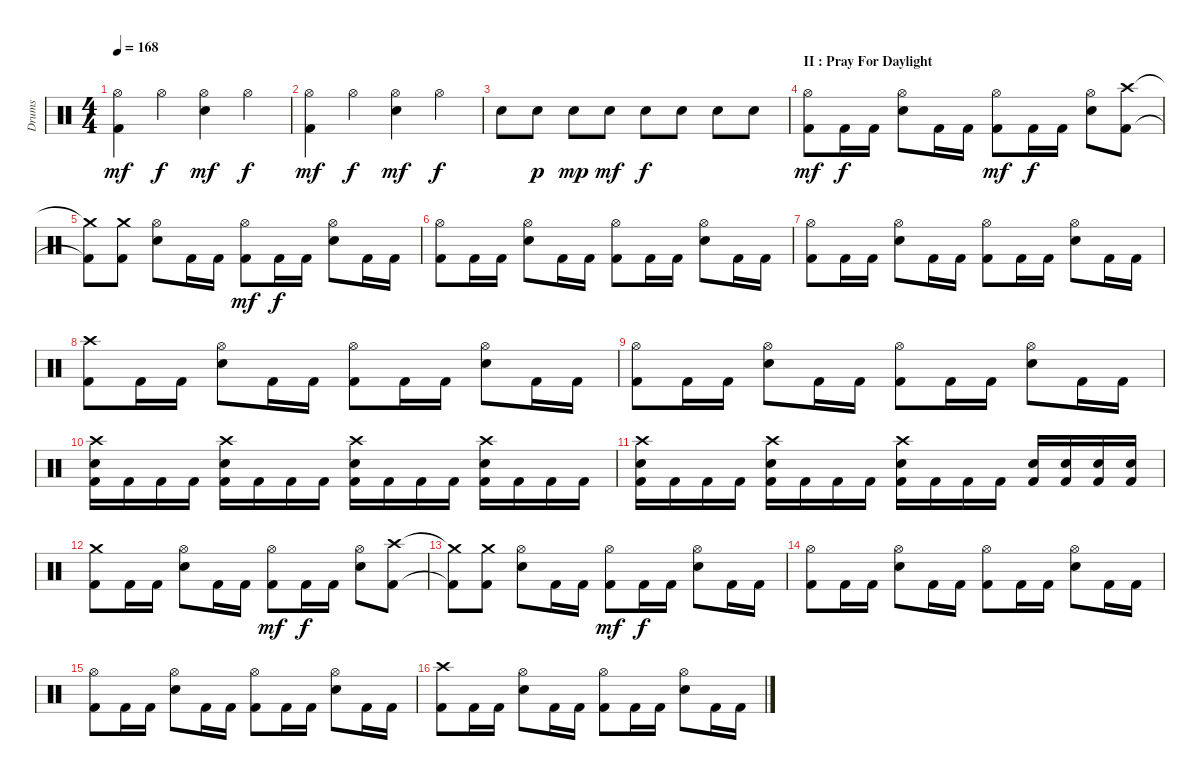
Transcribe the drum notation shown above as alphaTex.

\track ("Drums" "Drums") {instrument percussion}
\staff {score}
\articulation defaults
\ts (4 4)
\tempo 168
\clef neutral
\ks c
("Kick (hit) 2" "Hi-Hat (open)").4{dy mf} "Hi-Hat (open)".4{dy f} ("Electric Snare (hit)" "Hi-Hat (open)").4{dy mf} "Hi-Hat (open)".4{dy f} |
("Kick (hit) 2" "Hi-Hat (open)").4{dy mf} "Hi-Hat (open)".4{dy f} ("Electric Snare (hit)" "Hi-Hat (open)").4{dy mf} "Hi-Hat (open)".4{dy f} |
"Electric Snare (hit)".8 "Electric Snare (hit)".8{dy p} "Electric Snare (hit)".8{dy mp} "Electric Snare (hit)".8{dy mf} "Electric Snare (hit)".8{dy f} "Electric Snare (hit)".8 "Electric Snare (hit)".8 "Electric Snare (hit)".8 |
\section ("" "II : Pray For Daylight")
("Kick (hit) 2" "Hi-Hat (open)").8{dy mf} "Kick (hit) 2".16{dy f} "Kick (hit) 2".16 ("Electric Snare (hit)" "Hi-Hat (open)").8 "Kick (hit) 2".16 "Kick (hit) 2".16 ("Kick (hit) 2" "Hi-Hat (open)").8{dy mf} "Kick (hit) 2".16{dy f} "Kick (hit) 2".16 ("Electric Snare (hit)" "Hi-Hat (open)").8 ("Kick (hit) 2" "Crash high (hit)").8 |
("Kick (hit) 2"{t} "Crash medium (hit)"{t}).8 ("Kick (hit) 2" "Crash medium (hit)").8 ("Electric Snare (hit)" "Hi-Hat (open)").8 "Kick (hit) 2".16 "Kick (hit) 2".16 ("Kick (hit) 2" "Hi-Hat (open)").8{dy mf} "Kick (hit) 2".16{dy f} "Kick (hit) 2".16 ("Electric Snare (hit)" "Hi-Hat (open)").8 "Kick (hit) 2".16 "Kick (hit) 2".16 |
("Kick (hit) 2" "Hi-Hat (open)").8 "Kick (hit) 2".16 "Kick (hit) 2".16 ("Electric Snare (hit)" "Hi-Hat (open)").8 "Kick (hit) 2".16 "Kick (hit) 2".16 ("Kick (hit) 2" "Hi-Hat (open)").8 "Kick (hit) 2".16 "Kick (hit) 2".16 ("Electric Snare (hit)" "Hi-Hat (open)").8 "Kick (hit) 2".16 "Kick (hit) 2".16 |
("Kick (hit) 2" "Hi-Hat (open)").8 "Kick (hit) 2".16 "Kick (hit) 2".16 ("Electric Snare (hit)" "Hi-Hat (open)").8 "Kick (hit) 2".16 "Kick (hit) 2".16 ("Kick (hit) 2" "Hi-Hat (open)").8 "Kick (hit) 2".16 "Kick (hit) 2".16 ("Electric Snare (hit)" "Hi-Hat (open)").8 "Kick (hit) 2".16 "Kick (hit) 2".16 |
("Kick (hit) 2" "Crash high (hit)").8 "Kick (hit) 2".16 "Kick (hit) 2".16 ("Electric Snare (hit)" "Hi-Hat (open)").8 "Kick (hit) 2".16 "Kick (hit) 2".16 ("Kick (hit) 2" "Hi-Hat (open)").8 "Kick (hit) 2".16 "Kick (hit) 2".16 ("Electric Snare (hit)" "Hi-Hat (open)").8 "Kick (hit) 2".16 "Kick (hit) 2".16 |
("Kick (hit) 2" "Hi-Hat (open)").8 "Kick (hit) 2".16 "Kick (hit) 2".16 ("Electric Snare (hit)" "Hi-Hat (open)").8 "Kick (hit) 2".16 "Kick (hit) 2".16 ("Kick (hit) 2" "Hi-Hat (open)").8 "Kick (hit) 2".16 "Kick (hit) 2".16 ("Electric Snare (hit)" "Hi-Hat (open)").8 "Kick (hit) 2".16 "Kick (hit) 2".16 |
("Kick (hit) 2" "Electric Snare (hit)" "Crash high (hit)").16 "Kick (hit) 2".16 "Kick (hit) 2".16 "Kick (hit) 2".16 ("Kick (hit) 2" "Electric Snare (hit)" "Crash high (hit)").16 "Kick (hit) 2".16 "Kick (hit) 2".16 "Kick (hit) 2".16 ("Kick (hit) 2" "Electric Snare (hit)" "Crash high (hit)").16 "Kick (hit) 2".16 "Kick (hit) 2".16 "Kick (hit) 2".16 ("Kick (hit) 2" "Electric Snare (hit)" "Crash high (hit)").16 "Kick (hit) 2".16 "Kick (hit) 2".16 "Kick (hit) 2".16 |
("Kick (hit) 2" "Electric Snare (hit)" "Crash high (hit)").16 "Kick (hit) 2".16 "Kick (hit) 2".16 "Kick (hit) 2".16 ("Kick (hit) 2" "Electric Snare (hit)" "Crash high (hit)").16 "Kick (hit) 2".16 "Kick (hit) 2".16 "Kick (hit) 2".16 ("Kick (hit) 2" "Electric Snare (hit)" "Crash high (hit)").16 "Kick (hit) 2".16 "Kick (hit) 2".16 "Kick (hit) 2".16 ("Kick (hit) 2" "Electric Snare (hit)").16 ("Kick (hit) 2" "Electric Snare (hit)").16 ("Kick (hit) 2" "Electric Snare (hit)").16 ("Kick (hit) 2" "Electric Snare (hit)").16 |
\section ("" "")
("Kick (hit) 2" "Crash medium (hit)").8 "Kick (hit) 2".16 "Kick (hit) 2".16 ("Electric Snare (hit)" "Hi-Hat (open)").8 "Kick (hit) 2".16 "Kick (hit) 2".16 ("Kick (hit) 2" "Hi-Hat (open)").8{dy mf} "Kick (hit) 2".16{dy f} "Kick (hit) 2".16 ("Electric Snare (hit)" "Hi-Hat (open)").8 ("Kick (hit) 2" "Crash high (hit)").8 |
("Kick (hit) 2"{t} "Crash medium (hit)"{t}).8 ("Kick (hit) 2" "Crash medium (hit)").8 ("Electric Snare (hit)" "Hi-Hat (open)").8 "Kick (hit) 2".16 "Kick (hit) 2".16 ("Kick (hit) 2" "Hi-Hat (open)").8{dy mf} "Kick (hit) 2".16{dy f} "Kick (hit) 2".16 ("Electric Snare (hit)" "Hi-Hat (open)").8 "Kick (hit) 2".16 "Kick (hit) 2".16 |
("Kick (hit) 2" "Hi-Hat (open)").8 "Kick (hit) 2".16 "Kick (hit) 2".16 ("Electric Snare (hit)" "Hi-Hat (open)").8 "Kick (hit) 2".16 "Kick (hit) 2".16 ("Kick (hit) 2" "Hi-Hat (open)").8 "Kick (hit) 2".16 "Kick (hit) 2".16 ("Electric Snare (hit)" "Hi-Hat (open)").8 "Kick (hit) 2".16 "Kick (hit) 2".16 |
("Kick (hit) 2" "Hi-Hat (open)").8 "Kick (hit) 2".16 "Kick (hit) 2".16 ("Electric Snare (hit)" "Hi-Hat (open)").8 "Kick (hit) 2".16 "Kick (hit) 2".16 ("Kick (hit) 2" "Hi-Hat (open)").8 "Kick (hit) 2".16 "Kick (hit) 2".16 ("Electric Snare (hit)" "Hi-Hat (open)").8 "Kick (hit) 2".16 "Kick (hit) 2".16 |
("Kick (hit) 2" "Crash high (hit)").8 "Kick (hit) 2".16 "Kick (hit) 2".16 ("Electric Snare (hit)" "Hi-Hat (open)").8 "Kick (hit) 2".16 "Kick (hit) 2".16 ("Kick (hit) 2" "Hi-Hat (open)").8 "Kick (hit) 2".16 "Kick (hit) 2".16 ("Electric Snare (hit)" "Hi-Hat (open)").8 "Kick (hit) 2".16 "Kick (hit) 2".16
